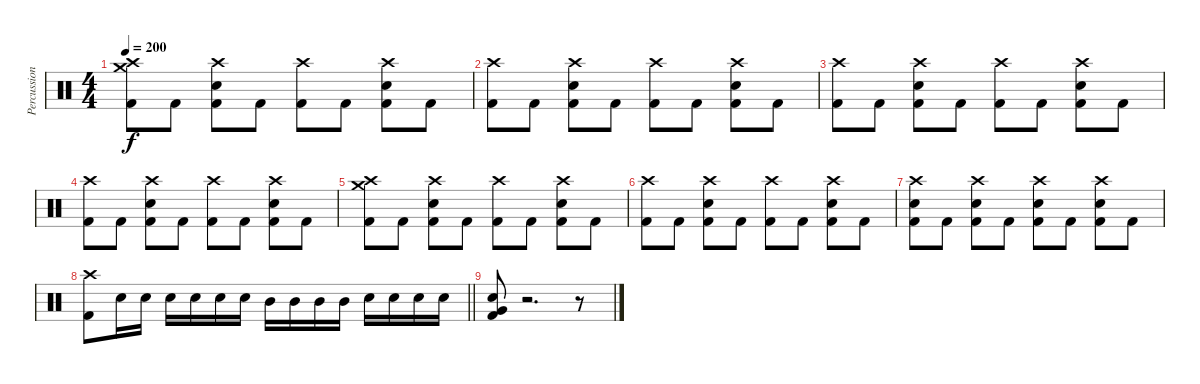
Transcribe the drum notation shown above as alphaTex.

\track ("Percussion" "Percussion") {instrument percussion}
\staff {score}
\articulation defaults
\ts (4 4)
\tempo 200
\clef neutral
\ks c
("Crash high (hit)" "Crash medium (hit)" "Kick (hit) 2").8{dy f} "Kick (hit) 2".8 ("Crash high (hit)" "Snare (hit) 2" "Kick (hit) 2").8 "Kick (hit) 2".8 ("Crash high (hit)" "Kick (hit) 2").8 "Kick (hit) 2".8 ("Crash high (hit)" "Snare (hit) 2" "Kick (hit) 2").8 "Kick (hit) 2".8 |
("Crash high (hit)" "Kick (hit) 2").8 "Kick (hit) 2".8 ("Crash high (hit)" "Snare (hit) 2" "Kick (hit) 2").8 "Kick (hit) 2".8 ("Crash high (hit)" "Kick (hit) 2").8 "Kick (hit) 2".8 ("Crash high (hit)" "Snare (hit) 2" "Kick (hit) 2").8 "Kick (hit) 2".8 |
("Crash high (hit)" "Kick (hit) 2").8 "Kick (hit) 2".8 ("Crash high (hit)" "Snare (hit) 2" "Kick (hit) 2").8 "Kick (hit) 2".8 ("Crash high (hit)" "Kick (hit) 2").8 "Kick (hit) 2".8 ("Crash high (hit)" "Snare (hit) 2" "Kick (hit) 2").8 "Kick (hit) 2".8 |
("Crash high (hit)" "Kick (hit) 2").8 "Kick (hit) 2".8 ("Crash high (hit)" "Snare (hit) 2" "Kick (hit) 2").8 "Kick (hit) 2".8 ("Crash high (hit)" "Kick (hit) 2").8 "Kick (hit) 2".8 ("Crash high (hit)" "Snare (hit) 2" "Kick (hit) 2").8 "Kick (hit) 2".8 |
("Crash high (hit)" "Crash medium (hit)" "Kick (hit) 2").8 "Kick (hit) 2".8 ("Crash high (hit)" "Snare (hit) 2" "Kick (hit) 2").8 "Kick (hit) 2".8 ("Crash high (hit)" "Kick (hit) 2").8 "Kick (hit) 2".8 ("Crash high (hit)" "Snare (hit) 2" "Kick (hit) 2").8 "Kick (hit) 2".8 |
("Crash high (hit)" "Kick (hit) 2").8 "Kick (hit) 2".8 ("Crash high (hit)" "Snare (hit) 2" "Kick (hit) 2").8 "Kick (hit) 2".8 ("Crash high (hit)" "Kick (hit) 2").8 "Kick (hit) 2".8 ("Crash high (hit)" "Snare (hit) 2" "Kick (hit) 2").8 "Kick (hit) 2".8 |
("Crash high (hit)" "Snare (hit) 2" "Kick (hit) 2").8 "Kick (hit) 2".8 ("Crash high (hit)" "Snare (hit) 2" "Kick (hit) 2").8 "Kick (hit) 2".8 ("Crash high (hit)" "Snare (hit) 2" "Kick (hit) 2").8 "Kick (hit) 2".8 ("Crash high (hit)" "Snare (hit) 2" "Kick (hit) 2").8 "Kick (hit) 2".8 |
\barLineRight lightlight
("Crash high (hit)" "Kick (hit) 2").8 "Snare (hit) 2".16 "Snare (hit) 2".16 "Snare (hit) 2".16 "Snare (hit) 2".16 "Snare (hit) 2".16 "Snare (hit) 2".16 "Mid Tom (hit)".16 "Mid Tom (hit)".16 "Mid Tom (hit)".16 "Mid Tom (hit)".16 "Snare (hit) 2".16 "Snare (hit) 2".16 "Snare (hit) 2".16 "Snare (hit) 2".16 |
("Very Low Tom (hit)" "Snare (hit) 2" "Kick (hit) 2").8 r.2{d} r.8
